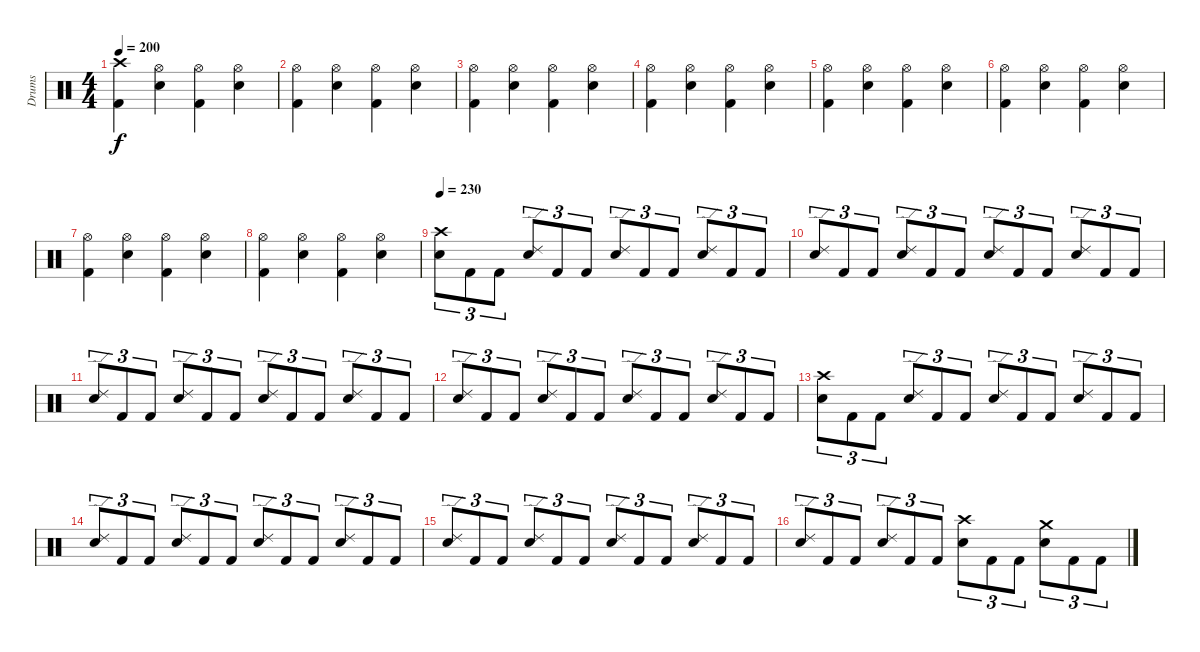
\track ("Drums" "Drums") {instrument percussion}
\staff {score}
\articulation defaults
\ts (4 4)
\tempo 200
\clef neutral
\ks c
("Crash high (hit)" "Kick (hit) 2").4{dy f} ("Hi-Hat (open)" "Electric Snare (hit)").4 ("Hi-Hat (open)" "Kick (hit) 2").4 ("Hi-Hat (open)" "Electric Snare (hit)").4 |
("Hi-Hat (open)" "Kick (hit) 2").4 ("Hi-Hat (open)" "Electric Snare (hit)").4 ("Hi-Hat (open)" "Kick (hit) 2").4 ("Hi-Hat (open)" "Electric Snare (hit)").4 |
("Hi-Hat (open)" "Kick (hit) 2").4 ("Hi-Hat (open)" "Electric Snare (hit)").4 ("Hi-Hat (open)" "Kick (hit) 2").4 ("Hi-Hat (open)" "Electric Snare (hit)").4 |
("Hi-Hat (open)" "Kick (hit) 2").4 ("Hi-Hat (open)" "Electric Snare (hit)").4 ("Hi-Hat (open)" "Kick (hit) 2").4 ("Hi-Hat (open)" "Electric Snare (hit)").4 |
("Hi-Hat (open)" "Kick (hit) 2").4 ("Hi-Hat (open)" "Electric Snare (hit)").4 ("Hi-Hat (open)" "Kick (hit) 2").4 ("Hi-Hat (open)" "Electric Snare (hit)").4 |
("Hi-Hat (open)" "Kick (hit) 2").4 ("Hi-Hat (open)" "Electric Snare (hit)").4 ("Hi-Hat (open)" "Kick (hit) 2").4 ("Hi-Hat (open)" "Electric Snare (hit)").4 |
("Hi-Hat (open)" "Kick (hit) 2").4 ("Hi-Hat (open)" "Electric Snare (hit)").4 ("Hi-Hat (open)" "Kick (hit) 2").4 ("Hi-Hat (open)" "Electric Snare (hit)").4 |
("Hi-Hat (open)" "Kick (hit) 2").4 ("Hi-Hat (open)" "Electric Snare (hit)").4 ("Hi-Hat (open)" "Kick (hit) 2").4 ("Hi-Hat (open)" "Electric Snare (hit)").4 |
\tempo 230
("Crash high (hit)" "Electric Snare (hit)").8{tu (3 2)} "Kick (hit) 2".8{tu (3 2)} "Kick (hit) 2".8{tu (3 2)} ("Ride (edge) 2" "Electric Snare (hit)").8{tu (3 2)} "Kick (hit) 2".8{tu (3 2)} "Kick (hit) 2".8{tu (3 2)} ("Ride (edge) 2" "Electric Snare (hit)").8{tu (3 2)} "Kick (hit) 2".8{tu (3 2)} "Kick (hit) 2".8{tu (3 2)} ("Ride (edge) 2" "Electric Snare (hit)").8{tu (3 2)} "Kick (hit) 2".8{tu (3 2)} "Kick (hit) 2".8{tu (3 2)} |
("Ride (edge) 2" "Electric Snare (hit)").8{tu (3 2)} "Kick (hit) 2".8{tu (3 2)} "Kick (hit) 2".8{tu (3 2)} ("Ride (edge) 2" "Electric Snare (hit)").8{tu (3 2)} "Kick (hit) 2".8{tu (3 2)} "Kick (hit) 2".8{tu (3 2)} ("Ride (edge) 2" "Electric Snare (hit)").8{tu (3 2)} "Kick (hit) 2".8{tu (3 2)} "Kick (hit) 2".8{tu (3 2)} ("Ride (edge) 2" "Electric Snare (hit)").8{tu (3 2)} "Kick (hit) 2".8{tu (3 2)} "Kick (hit) 2".8{tu (3 2)} |
("Ride (edge) 2" "Electric Snare (hit)").8{tu (3 2)} "Kick (hit) 2".8{tu (3 2)} "Kick (hit) 2".8{tu (3 2)} ("Ride (edge) 2" "Electric Snare (hit)").8{tu (3 2)} "Kick (hit) 2".8{tu (3 2)} "Kick (hit) 2".8{tu (3 2)} ("Ride (edge) 2" "Electric Snare (hit)").8{tu (3 2)} "Kick (hit) 2".8{tu (3 2)} "Kick (hit) 2".8{tu (3 2)} ("Ride (edge) 2" "Electric Snare (hit)").8{tu (3 2)} "Kick (hit) 2".8{tu (3 2)} "Kick (hit) 2".8{tu (3 2)} |
("Ride (edge) 2" "Electric Snare (hit)").8{tu (3 2)} "Kick (hit) 2".8{tu (3 2)} "Kick (hit) 2".8{tu (3 2)} ("Ride (edge) 2" "Electric Snare (hit)").8{tu (3 2)} "Kick (hit) 2".8{tu (3 2)} "Kick (hit) 2".8{tu (3 2)} ("Ride (edge) 2" "Electric Snare (hit)").8{tu (3 2)} "Kick (hit) 2".8{tu (3 2)} "Kick (hit) 2".8{tu (3 2)} ("Ride (edge) 2" "Electric Snare (hit)").8{tu (3 2)} "Kick (hit) 2".8{tu (3 2)} "Kick (hit) 2".8{tu (3 2)} |
("Crash high (hit)" "Electric Snare (hit)").8{tu (3 2)} "Kick (hit) 2".8{tu (3 2)} "Kick (hit) 2".8{tu (3 2)} ("Ride (edge) 2" "Electric Snare (hit)").8{tu (3 2)} "Kick (hit) 2".8{tu (3 2)} "Kick (hit) 2".8{tu (3 2)} ("Ride (edge) 2" "Electric Snare (hit)").8{tu (3 2)} "Kick (hit) 2".8{tu (3 2)} "Kick (hit) 2".8{tu (3 2)} ("Ride (edge) 2" "Electric Snare (hit)").8{tu (3 2)} "Kick (hit) 2".8{tu (3 2)} "Kick (hit) 2".8{tu (3 2)} |
("Ride (edge) 2" "Electric Snare (hit)").8{tu (3 2)} "Kick (hit) 2".8{tu (3 2)} "Kick (hit) 2".8{tu (3 2)} ("Ride (edge) 2" "Electric Snare (hit)").8{tu (3 2)} "Kick (hit) 2".8{tu (3 2)} "Kick (hit) 2".8{tu (3 2)} ("Ride (edge) 2" "Electric Snare (hit)").8{tu (3 2)} "Kick (hit) 2".8{tu (3 2)} "Kick (hit) 2".8{tu (3 2)} ("Ride (edge) 2" "Electric Snare (hit)").8{tu (3 2)} "Kick (hit) 2".8{tu (3 2)} "Kick (hit) 2".8{tu (3 2)} |
("Ride (edge) 2" "Electric Snare (hit)").8{tu (3 2)} "Kick (hit) 2".8{tu (3 2)} "Kick (hit) 2".8{tu (3 2)} ("Ride (edge) 2" "Electric Snare (hit)").8{tu (3 2)} "Kick (hit) 2".8{tu (3 2)} "Kick (hit) 2".8{tu (3 2)} ("Ride (edge) 2" "Electric Snare (hit)").8{tu (3 2)} "Kick (hit) 2".8{tu (3 2)} "Kick (hit) 2".8{tu (3 2)} ("Ride (edge) 2" "Electric Snare (hit)").8{tu (3 2)} "Kick (hit) 2".8{tu (3 2)} "Kick (hit) 2".8{tu (3 2)} |
("Ride (edge) 2" "Electric Snare (hit)").8{tu (3 2)} "Kick (hit) 2".8{tu (3 2)} "Kick (hit) 2".8{tu (3 2)} ("Ride (edge) 2" "Electric Snare (hit)").8{tu (3 2)} "Kick (hit) 2".8{tu (3 2)} "Kick (hit) 2".8{tu (3 2)} ("Crash high (hit)" "Electric Snare (hit)").8{tu (3 2)} "Kick (hit) 2".8{tu (3 2)} "Kick (hit) 2".8{tu (3 2)} ("Crash medium (hit)" "Electric Snare (hit)").8{tu (3 2)} "Kick (hit) 2".8{tu (3 2)} "Kick (hit) 2".8{tu (3 2)}
